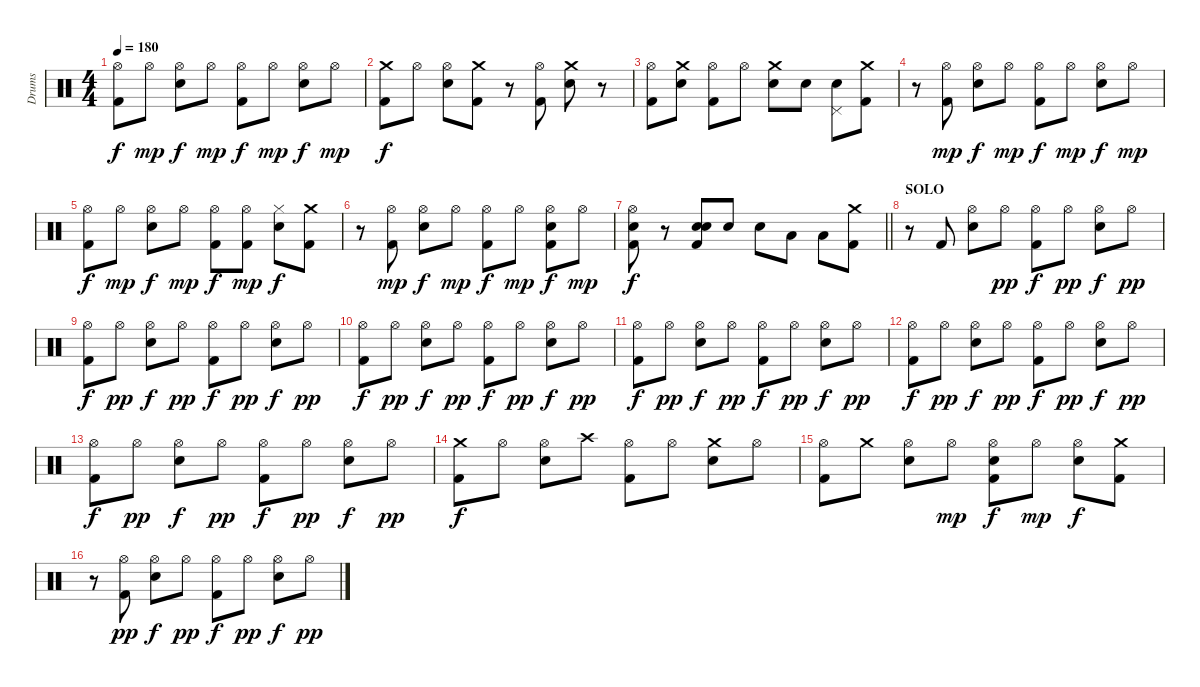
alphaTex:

\track ("Drums" "Drums") {instrument percussion}
\staff {score}
\articulation defaults
\ts (4 4)
\tempo 180
\clef neutral
\ks c
("Hi-Hat (open)" "Kick (hit) 2").8{dy f} "Hi-Hat (open)".8{dy mp} ("Hi-Hat (open)" "Electric Snare (hit)").8{dy f} "Hi-Hat (open)".8{dy mp} ("Hi-Hat (open)" "Kick (hit) 2").8{dy f} "Hi-Hat (open)".8{dy mp} ("Hi-Hat (open)" "Electric Snare (hit)").8{dy f} "Hi-Hat (open)".8{dy mp} |
("Crash medium (hit)" "Kick (hit) 2").8{dy f} "Hi-Hat (open)".8 ("Hi-Hat (open)" "Electric Snare (hit)").8 ("Kick (hit) 2" "Crash medium (hit)").8 r.8 ("Hi-Hat (open)" "Kick (hit) 2").8 ("Electric Snare (hit)" "Crash medium (hit)").8 r.8 |
("Hi-Hat (open)" "Kick (hit) 2").8 ("Crash medium (hit)" "Electric Snare (hit)").8 ("Hi-Hat (open)" "Kick (hit) 2").8 "Hi-Hat (open)".8 ("Crash medium (hit)" "Electric Snare (hit)").8 "Electric Snare (hit)".8 ("Pedal Hi-Hat (hit)" "Electric Snare (hit)").8 ("Kick (hit) 2" "Crash medium (hit)").8 |
r.8 ("Hi-Hat (open)" "Kick (hit) 2").8{dy mp} ("Hi-Hat (open)" "Electric Snare (hit)").8{dy f} "Hi-Hat (open)".8{dy mp} ("Hi-Hat (open)" "Kick (hit) 2").8{dy f} "Hi-Hat (open)".8{dy mp} ("Hi-Hat (open)" "Electric Snare (hit)").8{dy f} "Hi-Hat (open)".8{dy mp} |
("Hi-Hat (open)" "Kick (hit) 2").8{dy f} "Hi-Hat (open)".8{dy mp} ("Hi-Hat (open)" "Electric Snare (hit)").8{dy f} "Hi-Hat (open)".8{dy mp} ("Hi-Hat (open)" "Kick (hit) 2").8{dy f} ("Hi-Hat (open)" "Kick (hit) 2").8{dy mp} ("Hi-Hat (closed)" "Electric Snare (hit)").8{dy f} ("Kick (hit) 2" "Crash medium (hit)").8 |
r.8 ("Kick (hit) 2" "Hi-Hat (open)").8{dy mp} ("Hi-Hat (open)" "Electric Snare (hit)").8{dy f} "Hi-Hat (open)".8{dy mp} ("Hi-Hat (open)" "Kick (hit) 2").8{dy f} "Hi-Hat (open)".8{dy mp} ("Kick (hit) 2" "Hi-Hat (open)" "Electric Snare (hit)").8{dy f} "Hi-Hat (open)".8{dy mp} |
\barLineRight lightlight
("Electric Snare (hit)" "Hi-Hat (open)" "Kick (hit) 2").8{dy f} r.8 ("Electric Snare (hit)" "Kick (hit) 2" "Electric Snare (hit)").8 "Electric Snare (hit)".8 "Electric Snare (hit)".8 "Low Tom (hit)".8 "Low Tom (hit)".8 ("Crash medium (hit)" "Kick (hit) 2").8 |
\section ("" "SOLO")
r.8 "Kick (hit) 2".8 ("Hi-Hat (open)" "Electric Snare (hit)").8 "Hi-Hat (open)".8{dy pp} ("Hi-Hat (open)" "Kick (hit) 2").8{dy f} "Hi-Hat (open)".8{dy pp} ("Hi-Hat (open)" "Electric Snare (hit)").8{dy f} "Hi-Hat (open)".8{dy pp} |
("Hi-Hat (open)" "Kick (hit) 2").8{dy f} "Hi-Hat (open)".8{dy pp} ("Hi-Hat (open)" "Electric Snare (hit)").8{dy f} "Hi-Hat (open)".8{dy pp} ("Hi-Hat (open)" "Kick (hit) 2").8{dy f} "Hi-Hat (open)".8{dy pp} ("Hi-Hat (open)" "Electric Snare (hit)").8{dy f} "Hi-Hat (open)".8{dy pp} |
("Hi-Hat (open)" "Kick (hit) 2").8{dy f} "Hi-Hat (open)".8{dy pp} ("Hi-Hat (open)" "Electric Snare (hit)").8{dy f} "Hi-Hat (open)".8{dy pp} ("Hi-Hat (open)" "Kick (hit) 2").8{dy f} "Hi-Hat (open)".8{dy pp} ("Hi-Hat (open)" "Electric Snare (hit)").8{dy f} "Hi-Hat (open)".8{dy pp} |
("Hi-Hat (open)" "Kick (hit) 2").8{dy f} "Hi-Hat (open)".8{dy pp} ("Hi-Hat (open)" "Electric Snare (hit)").8{dy f} "Hi-Hat (open)".8{dy pp} ("Hi-Hat (open)" "Kick (hit) 2").8{dy f} "Hi-Hat (open)".8{dy pp} ("Hi-Hat (open)" "Electric Snare (hit)").8{dy f} "Hi-Hat (open)".8{dy pp} |
("Hi-Hat (open)" "Kick (hit) 2").8{dy f} "Hi-Hat (open)".8{dy pp} ("Hi-Hat (open)" "Electric Snare (hit)").8{dy f} "Hi-Hat (open)".8{dy pp} ("Hi-Hat (open)" "Kick (hit) 2").8{dy f} "Hi-Hat (open)".8{dy pp} ("Hi-Hat (open)" "Electric Snare (hit)").8{dy f} "Hi-Hat (open)".8{dy pp} |
("Hi-Hat (open)" "Kick (hit) 2").8{dy f} "Hi-Hat (open)".8{dy pp} ("Hi-Hat (open)" "Electric Snare (hit)").8{dy f} "Hi-Hat (open)".8{dy pp} ("Hi-Hat (open)" "Kick (hit) 2").8{dy f} "Hi-Hat (open)".8{dy pp} ("Hi-Hat (open)" "Electric Snare (hit)").8{dy f} "Hi-Hat (open)".8{dy pp} |
("Crash medium (hit)" "Kick (hit) 2").8{dy f} "Hi-Hat (open)".8 ("Hi-Hat (open)" "Electric Snare (hit)").8 "Crash high (hit)".8 ("Kick (hit) 2" "Hi-Hat (open)").8 "Hi-Hat (open)".8 ("Electric Snare (hit)" "Crash medium (hit)").8 "Hi-Hat (open)".8 |
("Kick (hit) 2" "Hi-Hat (open)").8 "Crash medium (hit)".8 ("Electric Snare (hit)" "Hi-Hat (open)").8 "Hi-Hat (open)".8{dy mp} ("Electric Snare (hit)" "Hi-Hat (open)" "Kick (hit) 2").8{dy f} "Hi-Hat (open)".8{dy mp} ("Hi-Hat (open)" "Electric Snare (hit)").8{dy f} ("Crash medium (hit)" "Kick (hit) 2").8 |
r.8 ("Hi-Hat (open)" "Kick (hit) 2").8{dy pp} ("Hi-Hat (open)" "Electric Snare (hit)").8{dy f} "Hi-Hat (open)".8{dy pp} ("Hi-Hat (open)" "Kick (hit) 2").8{dy f} "Hi-Hat (open)".8{dy pp} ("Hi-Hat (open)" "Electric Snare (hit)").8{dy f} "Hi-Hat (open)".8{dy pp}
